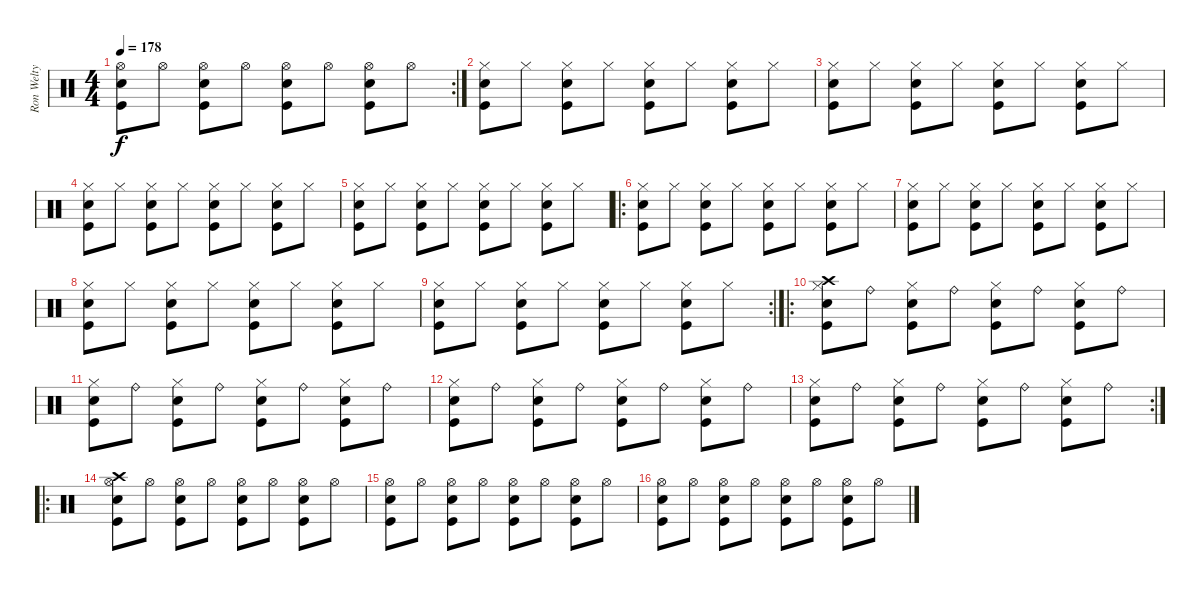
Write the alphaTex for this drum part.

\track ("Ron Welty" "Ron Welty") {instrument percussion}
\staff {score}
\articulation defaults
\rc 2
\ts (4 4)
\tempo 178
\clef neutral
\ks c
("Electric Snare (hit)" "Hi-Hat (open)" "Kick (hit)").8{dy f} "Hi-Hat (open)".8 ("Electric Snare (hit)" "Hi-Hat (open)" "Kick (hit)").8 "Hi-Hat (open)".8 ("Electric Snare (hit)" "Hi-Hat (open)" "Kick (hit)").8 "Hi-Hat (open)".8 ("Electric Snare (hit)" "Hi-Hat (open)" "Kick (hit)").8 "Hi-Hat (open)".8 |
("Electric Snare (hit)" "Hi-Hat (closed)" "Kick (hit)").8 "Hi-Hat (closed)".8 ("Electric Snare (hit)" "Hi-Hat (closed)" "Kick (hit)").8 "Hi-Hat (closed)".8 ("Electric Snare (hit)" "Hi-Hat (closed)" "Kick (hit)").8 "Hi-Hat (closed)".8 ("Electric Snare (hit)" "Hi-Hat (closed)" "Kick (hit)").8 "Hi-Hat (closed)".8 |
("Electric Snare (hit)" "Hi-Hat (closed)" "Kick (hit)").8 "Hi-Hat (closed)".8 ("Electric Snare (hit)" "Hi-Hat (closed)" "Kick (hit)").8 "Hi-Hat (closed)".8 ("Electric Snare (hit)" "Hi-Hat (closed)" "Kick (hit)").8 "Hi-Hat (closed)".8 ("Electric Snare (hit)" "Hi-Hat (closed)" "Kick (hit)").8 "Hi-Hat (closed)".8 |
("Electric Snare (hit)" "Hi-Hat (closed)" "Kick (hit)").8 "Hi-Hat (closed)".8 ("Electric Snare (hit)" "Hi-Hat (closed)" "Kick (hit)").8 "Hi-Hat (closed)".8 ("Electric Snare (hit)" "Hi-Hat (closed)" "Kick (hit)").8 "Hi-Hat (closed)".8 ("Electric Snare (hit)" "Hi-Hat (closed)" "Kick (hit)").8 "Hi-Hat (closed)".8 |
("Electric Snare (hit)" "Hi-Hat (closed)" "Kick (hit)").8 "Hi-Hat (closed)".8 ("Electric Snare (hit)" "Hi-Hat (closed)" "Kick (hit)").8 "Hi-Hat (closed)".8 ("Electric Snare (hit)" "Hi-Hat (closed)" "Kick (hit)").8 "Hi-Hat (closed)".8 ("Electric Snare (hit)" "Hi-Hat (closed)" "Kick (hit)").8 "Hi-Hat (closed)".8 |
\ro
("Electric Snare (hit)" "Hi-Hat (closed)" "Kick (hit)").8 "Hi-Hat (closed)".8 ("Electric Snare (hit)" "Hi-Hat (closed)" "Kick (hit)").8 "Hi-Hat (closed)".8 ("Electric Snare (hit)" "Hi-Hat (closed)" "Kick (hit)").8 "Hi-Hat (closed)".8 ("Electric Snare (hit)" "Hi-Hat (closed)" "Kick (hit)").8 "Hi-Hat (closed)".8 |
("Electric Snare (hit)" "Hi-Hat (closed)" "Kick (hit)").8 "Hi-Hat (closed)".8 ("Electric Snare (hit)" "Hi-Hat (closed)" "Kick (hit)").8 "Hi-Hat (closed)".8 ("Electric Snare (hit)" "Hi-Hat (closed)" "Kick (hit)").8 "Hi-Hat (closed)".8 ("Electric Snare (hit)" "Hi-Hat (closed)" "Kick (hit)").8 "Hi-Hat (closed)".8 |
("Electric Snare (hit)" "Hi-Hat (closed)" "Kick (hit)").8 "Hi-Hat (closed)".8 ("Electric Snare (hit)" "Hi-Hat (closed)" "Kick (hit)").8 "Hi-Hat (closed)".8 ("Electric Snare (hit)" "Hi-Hat (closed)" "Kick (hit)").8 "Hi-Hat (closed)".8 ("Electric Snare (hit)" "Hi-Hat (closed)" "Kick (hit)").8 "Hi-Hat (closed)".8 |
\rc 2
("Electric Snare (hit)" "Hi-Hat (closed)" "Kick (hit)").8 "Hi-Hat (closed)".8 ("Electric Snare (hit)" "Hi-Hat (closed)" "Kick (hit)").8 "Hi-Hat (closed)".8 ("Electric Snare (hit)" "Hi-Hat (closed)" "Kick (hit)").8 "Hi-Hat (closed)".8 ("Electric Snare (hit)" "Hi-Hat (closed)" "Kick (hit)").8 "Hi-Hat (closed)".8 |
\ro
("Crash high (hit)" "Electric Snare (hit)" "Hi-Hat (closed)" "Kick (hit)").8 "Ride (bell)".8 ("Electric Snare (hit)" "Hi-Hat (closed)" "Kick (hit)").8 "Ride (bell)".8 ("Electric Snare (hit)" "Hi-Hat (closed)" "Kick (hit)").8 "Ride (bell)".8 ("Electric Snare (hit)" "Hi-Hat (closed)" "Kick (hit)").8 "Ride (bell)".8 |
("Electric Snare (hit)" "Hi-Hat (closed)" "Kick (hit)").8 "Ride (bell)".8 ("Electric Snare (hit)" "Hi-Hat (closed)" "Kick (hit)").8 "Ride (bell)".8 ("Electric Snare (hit)" "Hi-Hat (closed)" "Kick (hit)").8 "Ride (bell)".8 ("Electric Snare (hit)" "Hi-Hat (closed)" "Kick (hit)").8 "Ride (bell)".8 |
("Electric Snare (hit)" "Hi-Hat (closed)" "Kick (hit)").8 "Ride (bell)".8 ("Electric Snare (hit)" "Hi-Hat (closed)" "Kick (hit)").8 "Ride (bell)".8 ("Electric Snare (hit)" "Hi-Hat (closed)" "Kick (hit)").8 "Ride (bell)".8 ("Electric Snare (hit)" "Hi-Hat (closed)" "Kick (hit)").8 "Ride (bell)".8 |
\rc 2
("Electric Snare (hit)" "Hi-Hat (closed)" "Kick (hit)").8 "Ride (bell)".8 ("Electric Snare (hit)" "Hi-Hat (closed)" "Kick (hit)").8 "Ride (bell)".8 ("Electric Snare (hit)" "Hi-Hat (closed)" "Kick (hit)").8 "Ride (bell)".8 ("Electric Snare (hit)" "Hi-Hat (closed)" "Kick (hit)").8 "Ride (bell)".8 |
\ro
("Crash high (hit)" "Electric Snare (hit)" "Hi-Hat (open)" "Kick (hit)").8 "Hi-Hat (open)".8 ("Electric Snare (hit)" "Hi-Hat (open)" "Kick (hit)").8 "Hi-Hat (open)".8 ("Electric Snare (hit)" "Hi-Hat (open)" "Kick (hit)").8 "Hi-Hat (open)".8 ("Electric Snare (hit)" "Hi-Hat (open)" "Kick (hit)").8 "Hi-Hat (open)".8 |
("Electric Snare (hit)" "Hi-Hat (open)" "Kick (hit)").8 "Hi-Hat (open)".8 ("Electric Snare (hit)" "Hi-Hat (open)" "Kick (hit)").8 "Hi-Hat (open)".8 ("Electric Snare (hit)" "Hi-Hat (open)" "Kick (hit)").8 "Hi-Hat (open)".8 ("Electric Snare (hit)" "Hi-Hat (open)" "Kick (hit)").8 "Hi-Hat (open)".8 |
("Electric Snare (hit)" "Hi-Hat (open)" "Kick (hit)").8 "Hi-Hat (open)".8 ("Electric Snare (hit)" "Hi-Hat (open)" "Kick (hit)").8 "Hi-Hat (open)".8 ("Electric Snare (hit)" "Hi-Hat (open)" "Kick (hit)").8 "Hi-Hat (open)".8 ("Electric Snare (hit)" "Hi-Hat (open)" "Kick (hit)").8 "Hi-Hat (open)".8
